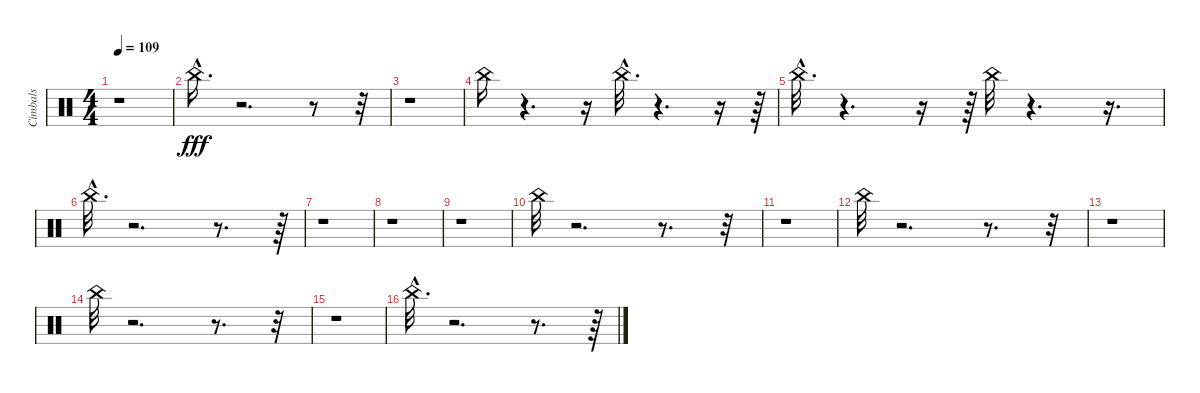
\track ("Cimbals" "Cimbals") {instrument percussion}
\staff {score}
\articulation defaults
\ts (4 4)
\tempo 109
\clef neutral
\ks c
r.1{dy fff} |
"China (choke)"{hac}.16{d} r.2{d} r.8 r.32 |
r.1 |
"China (choke)".16 r.4{d} r.16 "China (choke)"{hac}.32{d} r.4{d} r.16 r.64 |
"China (choke)"{hac}.32{d} r.4{d} r.16 r.64 "China (choke)".32 r.4{d} r.16{d} |
"China (choke)"{hac}.32{d} r.2{d} r.8{d} r.64 |
r.1 |
r.1 |
r.1 |
"China (choke)".32 r.2{d} r.8{d} r.32 |
r.1 |
"China (choke)".32 r.2{d} r.8{d} r.32 |
r.1 |
"China (choke)".32 r.2{d} r.8{d} r.32 |
r.1 |
"China (choke)"{hac}.32{d} r.2{d} r.8{d} r.64
